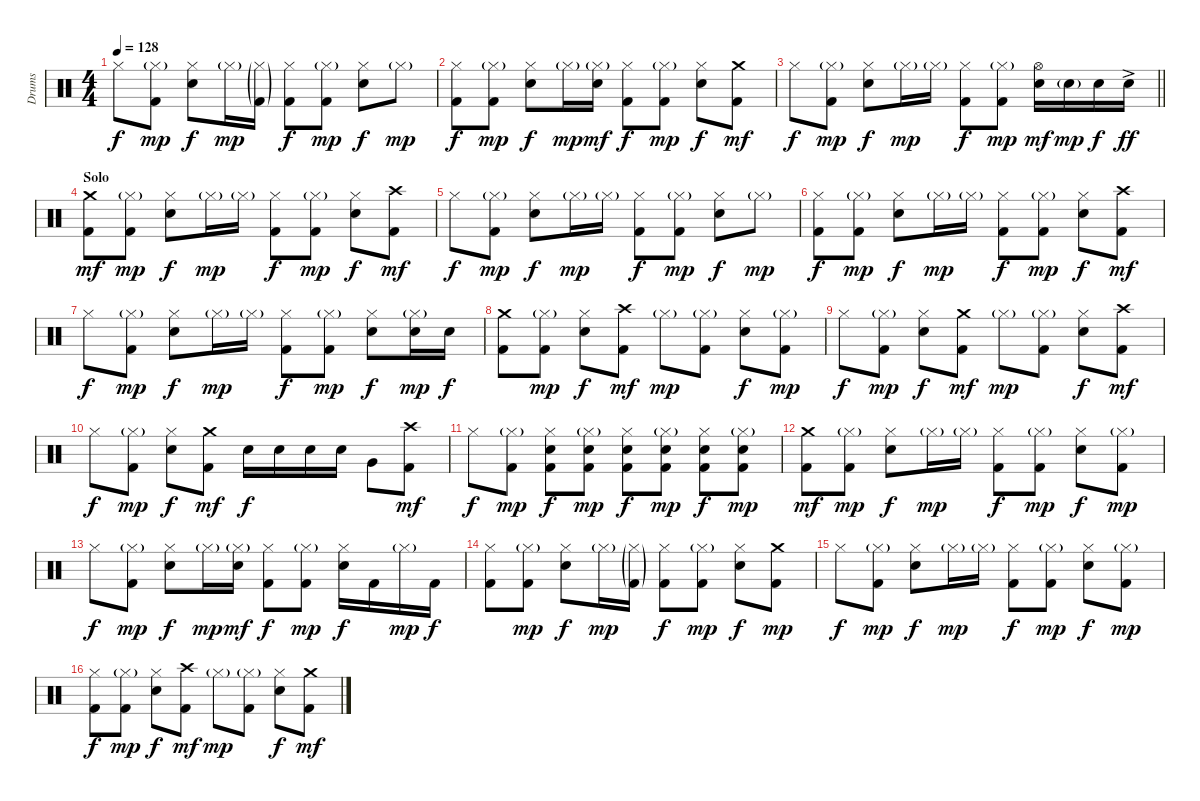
\track ("Drums" "Drums") {instrument percussion}
\staff {score}
\articulation defaults
\ts (4 4)
\tempo 128
\clef neutral
\ks c "Hi-Hat (closed)".8{dy f}
("Hi-Hat (closed)"{g} "Kick (hit) 2").8{dy mp} ("Hi-Hat (closed)" "Electric Snare (hit)").8{dy f} "Hi-Hat (closed)"{g}.16{dy mp} ("Hi-Hat (closed)"{g} "Kick (hit) 2"{g}).16 ("Hi-Hat (closed)" "Kick (hit) 2").8{dy f} ("Hi-Hat (closed)"{g} "Kick (hit) 2").8{dy mp} ("Hi-Hat (closed)" "Electric Snare (hit)").8{dy f} "Hi-Hat (closed)"{g}.8{dy mp} |
("Hi-Hat (closed)" "Kick (hit) 2").8{dy f} ("Hi-Hat (closed)"{g} "Kick (hit) 2").8{dy mp} ("Hi-Hat (closed)" "Electric Snare (hit)").8{dy f} "Hi-Hat (closed)"{g}.16{dy mp} ("Hi-Hat (closed)"{g} "Electric Snare (hit)").16{dy mf} ("Hi-Hat (closed)" "Kick (hit) 2").8{dy f} ("Hi-Hat (closed)"{g} "Kick (hit) 2").8{dy mp} ("Hi-Hat (closed)" "Electric Snare (hit)").8{dy f} ("Crash medium (hit)" "Kick (hit) 2").8{dy mf} |
\barLineRight lightlight "Hi-Hat (closed)".8{dy f}
("Hi-Hat (closed)"{g} "Kick (hit) 2").8{dy mp} ("Hi-Hat (closed)" "Electric Snare (hit)").8{dy f} "Hi-Hat (closed)"{g}.16{dy mp} "Hi-Hat (closed)"{g}.16 ("Hi-Hat (closed)" "Kick (hit) 2").8{dy f} ("Hi-Hat (closed)"{g} "Kick (hit) 2").8{dy mp} ("Hi-Hat (open)" "Electric Snare (hit)").16{dy mf} "Electric Snare (hit)"{g}.16{dy mp} "Electric Snare (hit)".16{dy f} "Electric Snare (hit)"{ac}.16{dy ff} |
\section ("" "Solo")
("Crash medium (hit)" "Kick (hit) 2").8{dy mf} ("Hi-Hat (closed)"{g} "Kick (hit) 2").8{dy mp} ("Hi-Hat (closed)" "Electric Snare (hit)").8{dy f} "Hi-Hat (closed)"{g}.16{dy mp} "Hi-Hat (closed)"{g}.16 ("Hi-Hat (closed)" "Kick (hit) 2").8{dy f} ("Hi-Hat (closed)"{g} "Kick (hit) 2").8{dy mp} ("Hi-Hat (closed)" "Electric Snare (hit)").8{dy f} ("Crash high (hit)" "Kick (hit) 2").8{dy mf} |
"Hi-Hat (closed)".8{dy f} ("Hi-Hat (closed)"{g} "Kick (hit) 2").8{dy mp} ("Hi-Hat (closed)" "Electric Snare (hit)").8{dy f} "Hi-Hat (closed)"{g}.16{dy mp} "Hi-Hat (closed)"{g}.16 ("Hi-Hat (closed)" "Kick (hit) 2").8{dy f} ("Hi-Hat (closed)"{g} "Kick (hit) 2").8{dy mp} ("Hi-Hat (closed)" "Electric Snare (hit)").8{dy f} "Hi-Hat (closed)"{g}.8{dy mp} |
("Hi-Hat (closed)" "Kick (hit) 2").8{dy f} ("Hi-Hat (closed)"{g} "Kick (hit) 2").8{dy mp} ("Hi-Hat (closed)" "Electric Snare (hit)").8{dy f} "Hi-Hat (closed)"{g}.16{dy mp} "Hi-Hat (closed)"{g}.16 ("Hi-Hat (closed)" "Kick (hit) 2").8{dy f} ("Hi-Hat (closed)"{g} "Kick (hit) 2").8{dy mp} ("Hi-Hat (closed)" "Electric Snare (hit)").8{dy f} ("Crash high (hit)" "Kick (hit) 2").8{dy mf} |
"Hi-Hat (closed)".8{dy f} ("Hi-Hat (closed)"{g} "Kick (hit) 2").8{dy mp} ("Hi-Hat (closed)" "Electric Snare (hit)").8{dy f} "Hi-Hat (closed)"{g}.16{dy mp} "Hi-Hat (closed)"{g}.16 ("Hi-Hat (closed)" "Kick (hit) 2").8{dy f} ("Hi-Hat (closed)"{g} "Kick (hit) 2").8{dy mp} ("Hi-Hat (closed)" "Electric Snare (hit)").8{dy f} ("Hi-Hat (closed)"{g} "Electric Snare (hit)").16{dy mp} "Electric Snare (hit)".16{dy f} |
("Crash medium (hit)" "Kick (hit) 2").8 ("Hi-Hat (closed)"{g} "Kick (hit) 2").8{dy mp} ("Hi-Hat (closed)" "Electric Snare (hit)").8{dy f} ("Crash high (hit)" "Kick (hit) 2").8{dy mf} "Hi-Hat (closed)"{g}.8{dy mp} ("Hi-Hat (closed)"{g} "Kick (hit) 2").8 ("Hi-Hat (closed)" "Electric Snare (hit)").8{dy f} ("Hi-Hat (closed)"{g} "Kick (hit) 2").8{dy mp} |
"Hi-Hat (closed)".8{dy f} ("Hi-Hat (closed)"{g} "Kick (hit) 2").8{dy mp} ("Hi-Hat (closed)" "Electric Snare (hit)").8{dy f} ("Crash medium (hit)" "Kick (hit) 2").8{dy mf} "Hi-Hat (closed)"{g}.8{dy mp} ("Hi-Hat (closed)"{g} "Kick (hit) 2").8 ("Hi-Hat (closed)" "Electric Snare (hit)").8{dy f} ("Crash high (hit)" "Kick (hit) 2").8{dy mf} |
"Hi-Hat (closed)".8{dy f} ("Hi-Hat (closed)"{g} "Kick (hit) 2").8{dy mp} ("Hi-Hat (closed)" "Electric Snare (hit)").8{dy f} ("Crash medium (hit)" "Kick (hit) 2").8{dy mf} "Electric Snare (hit)".16{dy f} "Electric Snare (hit)".16 "Electric Snare (hit)".16 "Electric Snare (hit)".16 "Very Low Tom (hit)".8 ("Crash high (hit)" "Kick (hit) 2").8{dy mf} |
"Hi-Hat (closed)".8{dy f} ("Hi-Hat (closed)"{g} "Kick (hit) 2").8{dy mp} ("Hi-Hat (closed)" "Electric Snare (hit)" "Kick (hit) 2").8{dy f} ("Hi-Hat (closed)"{g} "Electric Snare (hit)" "Kick (hit) 2").8{dy mp} ("Hi-Hat (closed)" "Electric Snare (hit)" "Kick (hit) 2").8{dy f} ("Hi-Hat (closed)"{g} "Electric Snare (hit)" "Kick (hit) 2").8{dy mp} ("Hi-Hat (closed)" "Electric Snare (hit)" "Kick (hit) 2").8{dy f} ("Hi-Hat (closed)"{g} "Electric Snare (hit)" "Kick (hit) 2").8{dy mp} |
("Crash medium (hit)" "Kick (hit) 2").8{dy mf} ("Hi-Hat (closed)"{g} "Kick (hit) 2").8{dy mp} ("Hi-Hat (closed)" "Electric Snare (hit)").8{dy f} "Hi-Hat (closed)"{g}.16{dy mp} "Hi-Hat (closed)"{g}.16 ("Hi-Hat (closed)" "Kick (hit) 2").8{dy f} ("Hi-Hat (closed)"{g} "Kick (hit) 2").8{dy mp} ("Hi-Hat (closed)" "Electric Snare (hit)").8{dy f} ("Hi-Hat (closed)"{g} "Kick (hit) 2").8{dy mp} |
"Hi-Hat (closed)".8{dy f} ("Hi-Hat (closed)"{g} "Kick (hit) 2").8{dy mp} ("Hi-Hat (closed)" "Electric Snare (hit)").8{dy f} "Hi-Hat (closed)"{g}.16{dy mp} ("Hi-Hat (closed)"{g} "Electric Snare (hit)").16{dy mf} ("Hi-Hat (closed)" "Kick (hit) 2").8{dy f} ("Hi-Hat (closed)"{g} "Kick (hit) 2").8{dy mp} ("Hi-Hat (closed)" "Electric Snare (hit)").16{dy f} "Kick (hit) 2".16 "Hi-Hat (closed)"{g}.16{dy mp} "Kick (hit) 2".16{dy f} |
("Hi-Hat (closed)" "Kick (hit) 2").8 ("Hi-Hat (closed)"{g} "Kick (hit) 2").8{dy mp} ("Hi-Hat (closed)" "Electric Snare (hit)").8{dy f} "Hi-Hat (closed)"{g}.16{dy mp} ("Hi-Hat (closed)"{g} "Kick (hit) 2"{g}).16 ("Hi-Hat (closed)" "Kick (hit) 2").8{dy f} ("Hi-Hat (closed)"{g} "Kick (hit) 2").8{dy mp} ("Hi-Hat (closed)" "Electric Snare (hit)").8{dy f} ("Crash medium (hit)" "Kick (hit) 2").8{dy mp} |
"Hi-Hat (closed)".8{dy f} ("Hi-Hat (closed)"{g} "Kick (hit) 2").8{dy mp} ("Hi-Hat (closed)" "Electric Snare (hit)").8{dy f} "Hi-Hat (closed)"{g}.16{dy mp} "Hi-Hat (closed)"{g}.16 ("Hi-Hat (closed)" "Kick (hit) 2").8{dy f} ("Hi-Hat (closed)"{g} "Kick (hit) 2").8{dy mp} ("Hi-Hat (closed)" "Electric Snare (hit)").8{dy f} ("Hi-Hat (closed)"{g} "Kick (hit) 2").8{dy mp} |
("Hi-Hat (closed)" "Kick (hit) 2").8{dy f} ("Hi-Hat (closed)"{g} "Kick (hit) 2").8{dy mp} ("Hi-Hat (closed)" "Electric Snare (hit)").8{dy f} ("Crash high (hit)" "Kick (hit) 2").8{dy mf} "Hi-Hat (closed)"{g}.8{dy mp} ("Hi-Hat (closed)"{g} "Kick (hit) 2").8 ("Hi-Hat (closed)" "Electric Snare (hit)").8{dy f} ("Crash medium (hit)" "Kick (hit) 2").8{dy mf}
